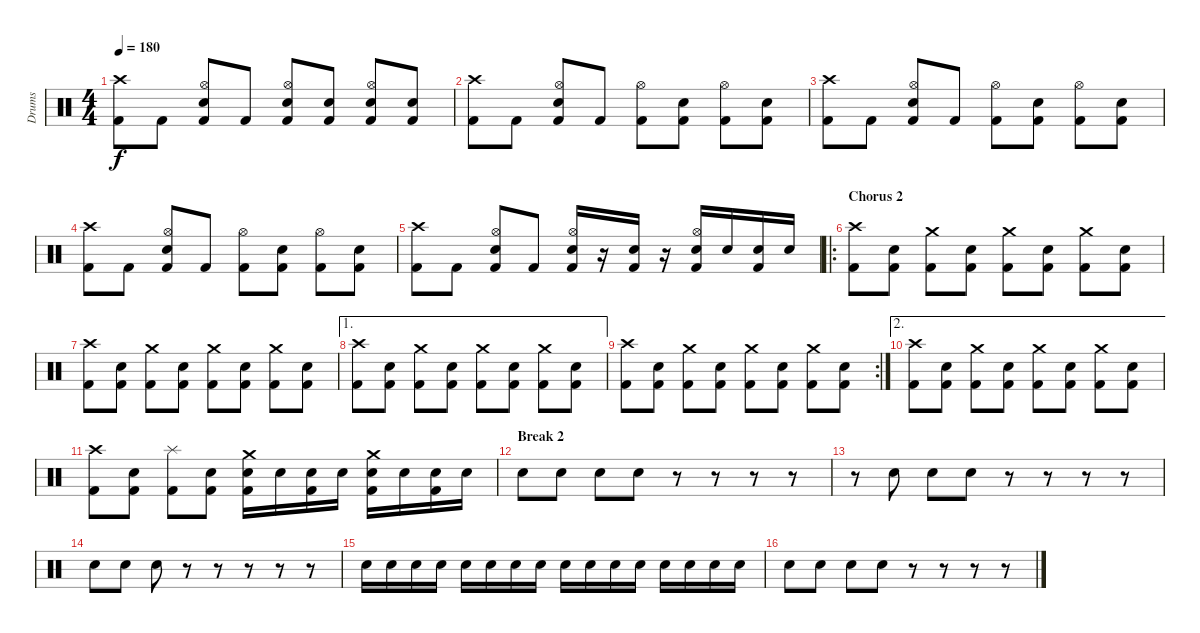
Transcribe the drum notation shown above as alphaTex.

\track ("Drums" "Drums") {instrument percussion}
\staff {score}
\articulation defaults
\ts (4 4)
\tempo 180
\clef neutral
\ks c
("Crash high (hit)" "Kick (hit) 2").8{dy f} "Kick (hit) 2".8 ("Hi-Hat (open)" "Electric Snare (hit)" "Kick (hit) 2").8 "Kick (hit) 2".8 ("Hi-Hat (open)" "Electric Snare (hit)" "Kick (hit) 2").8 ("Electric Snare (hit)" "Kick (hit) 2").8 ("Hi-Hat (open)" "Electric Snare (hit)" "Kick (hit) 2").8 ("Electric Snare (hit)" "Kick (hit) 2").8 |
("Crash high (hit)" "Kick (hit) 2").8 "Kick (hit) 2".8 ("Hi-Hat (open)" "Electric Snare (hit)" "Kick (hit) 2").8 "Kick (hit) 2".8 ("Hi-Hat (open)" "Kick (hit) 2").8 ("Electric Snare (hit)" "Kick (hit) 2").8 ("Hi-Hat (open)" "Kick (hit) 2").8 ("Electric Snare (hit)" "Kick (hit) 2").8 |
("Crash high (hit)" "Kick (hit) 2").8 "Kick (hit) 2".8 ("Hi-Hat (open)" "Electric Snare (hit)" "Kick (hit) 2").8 "Kick (hit) 2".8 ("Hi-Hat (open)" "Kick (hit) 2").8 ("Electric Snare (hit)" "Kick (hit) 2").8 ("Hi-Hat (open)" "Kick (hit) 2").8 ("Electric Snare (hit)" "Kick (hit) 2").8 |
("Crash high (hit)" "Kick (hit) 2").8 "Kick (hit) 2".8 ("Hi-Hat (open)" "Electric Snare (hit)" "Kick (hit) 2").8 "Kick (hit) 2".8 ("Hi-Hat (open)" "Kick (hit) 2").8 ("Electric Snare (hit)" "Kick (hit) 2").8 ("Hi-Hat (open)" "Kick (hit) 2").8 ("Electric Snare (hit)" "Kick (hit) 2").8 |
("Crash high (hit)" "Kick (hit) 2").8 "Kick (hit) 2".8 ("Hi-Hat (open)" "Electric Snare (hit)" "Kick (hit) 2").8 "Kick (hit) 2".8 ("Hi-Hat (open)" "Electric Snare (hit)" "Kick (hit) 2").16 r.16 ("Electric Snare (hit)" "Kick (hit) 2").16 r.16 ("Hi-Hat (open)" "Electric Snare (hit)" "Kick (hit) 2").16 "Electric Snare (hit)".16 ("Electric Snare (hit)" "Kick (hit) 2").16 "Electric Snare (hit)".16 |
\ro
\section ("" "Chorus 2")
("Crash high (hit)" "Kick (hit) 2").8 ("Electric Snare (hit)" "Kick (hit) 2").8 ("Crash medium (hit)" "Kick (hit) 2").8 ("Electric Snare (hit)" "Kick (hit) 2").8 ("Crash medium (hit)" "Kick (hit) 2").8 ("Electric Snare (hit)" "Kick (hit) 2").8 ("Crash medium (hit)" "Kick (hit) 2").8 ("Electric Snare (hit)" "Kick (hit) 2").8 |
("Crash high (hit)" "Kick (hit) 2").8 ("Electric Snare (hit)" "Kick (hit) 2").8 ("Crash medium (hit)" "Kick (hit) 2").8 ("Electric Snare (hit)" "Kick (hit) 2").8 ("Crash medium (hit)" "Kick (hit) 2").8 ("Electric Snare (hit)" "Kick (hit) 2").8 ("Crash medium (hit)" "Kick (hit) 2").8 ("Electric Snare (hit)" "Kick (hit) 2").8 |
\ae 1
("Crash high (hit)" "Kick (hit) 2").8 ("Electric Snare (hit)" "Kick (hit) 2").8 ("Crash medium (hit)" "Kick (hit) 2").8 ("Electric Snare (hit)" "Kick (hit) 2").8 ("Crash medium (hit)" "Kick (hit) 2").8 ("Electric Snare (hit)" "Kick (hit) 2").8 ("Crash medium (hit)" "Kick (hit) 2").8 ("Electric Snare (hit)" "Kick (hit) 2").8 |
\rc 2
("Crash high (hit)" "Kick (hit) 2").8 ("Electric Snare (hit)" "Kick (hit) 2").8 ("Crash medium (hit)" "Kick (hit) 2").8 ("Electric Snare (hit)" "Kick (hit) 2").8 ("Crash medium (hit)" "Kick (hit) 2").8 ("Electric Snare (hit)" "Kick (hit) 2").8 ("Crash medium (hit)" "Kick (hit) 2").8 ("Electric Snare (hit)" "Kick (hit) 2").8 |
\ae 2
("Crash high (hit)" "Kick (hit) 2").8 ("Electric Snare (hit)" "Kick (hit) 2").8 ("Crash medium (hit)" "Kick (hit) 2").8 ("Electric Snare (hit)" "Kick (hit) 2").8 ("Crash medium (hit)" "Kick (hit) 2").8 ("Electric Snare (hit)" "Kick (hit) 2").8 ("Crash medium (hit)" "Kick (hit) 2").8 ("Electric Snare (hit)" "Kick (hit) 2").8 |
("Crash high (hit)" "Kick (hit) 2").8 ("Electric Snare (hit)" "Kick (hit) 2").8 ("Splash (hit)" "Kick (hit) 2").8 ("Electric Snare (hit)" "Kick (hit) 2").8 ("Crash medium (hit)" "Electric Snare (hit)" "Kick (hit) 2").16 "Electric Snare (hit)".16 ("Electric Snare (hit)" "Kick (hit) 2").16 "Electric Snare (hit)".16 ("Crash medium (hit)" "Electric Snare (hit)" "Kick (hit) 2").16 "Electric Snare (hit)".16 ("Electric Snare (hit)" "Kick (hit) 2").16 "Electric Snare (hit)".16 |
\section ("" "Break 2")
"Electric Snare (hit)".8 "Electric Snare (hit)".8 "Electric Snare (hit)".8 "Electric Snare (hit)".8 r.8 r.8 r.8 r.8 |
r.8 "Electric Snare (hit)".8 "Electric Snare (hit)".8 "Electric Snare (hit)".8 r.8 r.8 r.8 r.8 |
"Electric Snare (hit)".8 "Electric Snare (hit)".8 "Electric Snare (hit)".8 r.8 r.8 r.8 r.8 r.8 |
"Electric Snare (hit)".16 "Electric Snare (hit)".16 "Electric Snare (hit)".16 "Electric Snare (hit)".16 "Electric Snare (hit)".16 "Electric Snare (hit)".16 "Electric Snare (hit)".16 "Electric Snare (hit)".16 "Electric Snare (hit)".16 "Electric Snare (hit)".16 "Electric Snare (hit)".16 "Electric Snare (hit)".16 "Electric Snare (hit)".16 "Electric Snare (hit)".16 "Electric Snare (hit)".16 "Electric Snare (hit)".16 |
"Electric Snare (hit)".8 "Electric Snare (hit)".8 "Electric Snare (hit)".8 "Electric Snare (hit)".8 r.8 r.8 r.8 r.8
